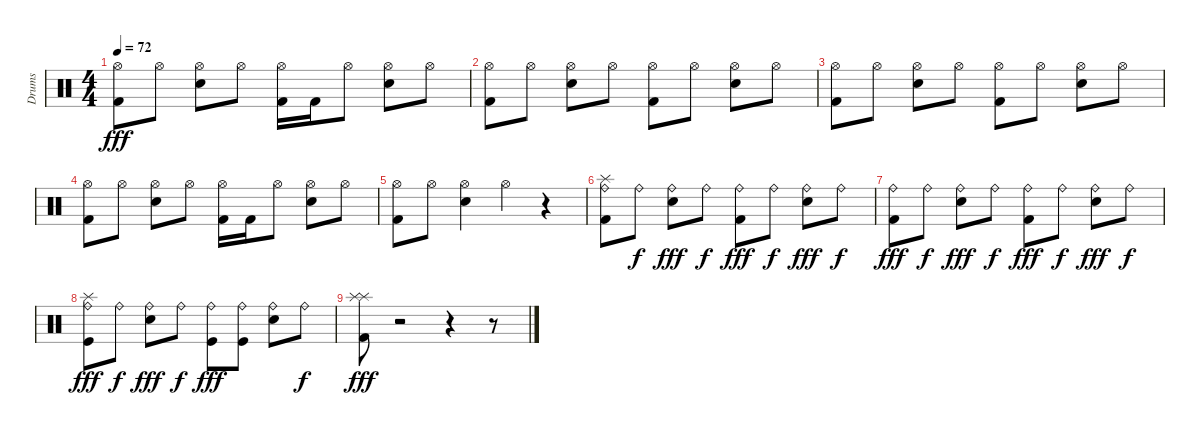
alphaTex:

\track ("Drums" "Drums") {instrument percussion}
\staff {score}
\articulation defaults
\ts (4 4)
\tempo 72
\clef neutral
\ks c
("Hi-Hat (open)" "Kick (hit) 2").8{dy fff} "Hi-Hat (open)".8 ("Hi-Hat (open)" "Snare (hit) 2").8 "Hi-Hat (open)".8 ("Kick (hit) 2" "Hi-Hat (open)").16 "Kick (hit) 2".16 "Hi-Hat (open)".8 ("Hi-Hat (open)" "Snare (hit) 2").8 "Hi-Hat (open)".8 |
("Hi-Hat (open)" "Kick (hit) 2").8 "Hi-Hat (open)".8 ("Hi-Hat (open)" "Snare (hit) 2").8 "Hi-Hat (open)".8 ("Hi-Hat (open)" "Kick (hit) 2").8 "Hi-Hat (open)".8 ("Hi-Hat (open)" "Snare (hit) 2").8 "Hi-Hat (open)".8 |
("Hi-Hat (open)" "Kick (hit) 2").8 "Hi-Hat (open)".8 ("Hi-Hat (open)" "Snare (hit) 2").8 "Hi-Hat (open)".8 ("Hi-Hat (open)" "Kick (hit) 2").8 "Hi-Hat (open)".8 ("Hi-Hat (open)" "Snare (hit) 2").8 "Hi-Hat (open)".8 |
("Hi-Hat (open)" "Kick (hit) 2").8 "Hi-Hat (open)".8 ("Hi-Hat (open)" "Snare (hit) 2").8 "Hi-Hat (open)".8 ("Kick (hit) 2" "Hi-Hat (open)").16 "Kick (hit) 2".16 "Hi-Hat (open)".8 ("Hi-Hat (open)" "Snare (hit) 2").8 "Hi-Hat (open)".8 |
("Hi-Hat (open)" "Kick (hit) 2").8 "Hi-Hat (open)".8 ("Hi-Hat (open)" "Snare (hit) 2").4 "Hi-Hat (open)".4 r.4 |
("Ride (bell)" "Splash (hit)" "Kick (hit) 2").8 "Ride (bell)".8{dy f} ("Ride (bell)" "Snare (hit) 2").8{dy fff} "Ride (bell)".8{dy f} ("Ride (bell)" "Kick (hit) 2").8{dy fff} "Ride (bell)".8{dy f} ("Ride (bell)" "Snare (hit) 2").8{dy fff} "Ride (bell)".8{dy f} |
("Ride (bell)" "Kick (hit) 2").8{dy fff} "Ride (bell)".8{dy f} ("Ride (bell)" "Snare (hit) 2").8{dy fff} "Ride (bell)".8{dy f} ("Ride (bell)" "Kick (hit) 2").8{dy fff} "Ride (bell)".8{dy f} ("Ride (bell)" "Snare (hit) 2").8{dy fff} "Ride (bell)".8{dy f} |
("Ride (bell)" "Splash (hit)" "Kick (hit)").8{dy fff} "Ride (bell)".8{dy f} ("Ride (bell)" "Electric Snare (hit)").8{dy fff} "Ride (bell)".8{dy f} ("Ride (bell)" "Kick (hit)").8{dy fff} ("Ride (bell)" "Kick (hit)").8 ("Ride (bell)" "Electric Snare (hit)").8 "Ride (bell)".8{dy f} |
("Splash (hit)" "Splash (hit)" "Kick (hit) 2").8{dy fff} r.2 r.4 r.8
